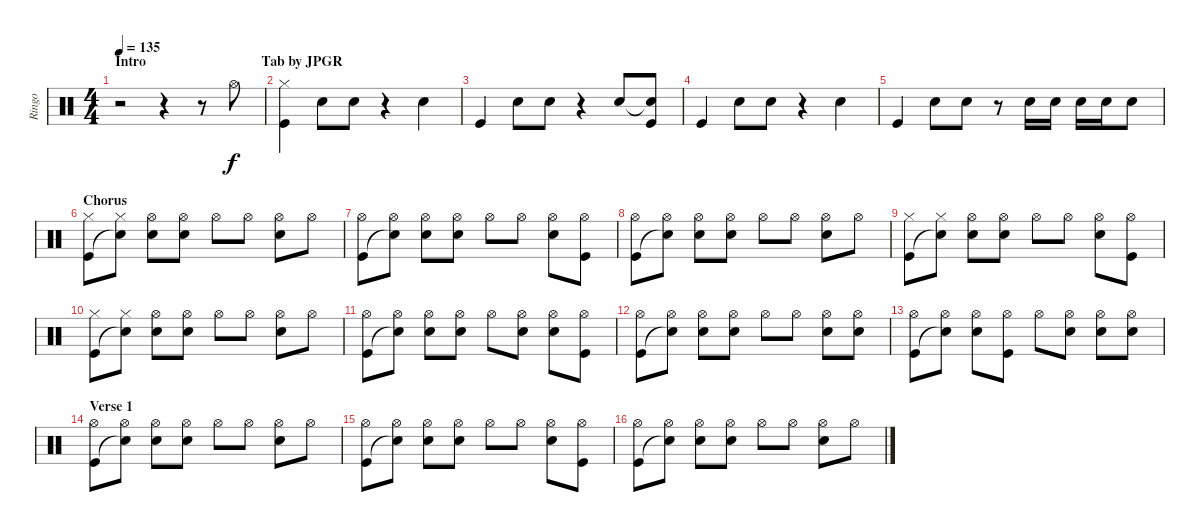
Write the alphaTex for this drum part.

\track ("Ringo" "Ringo") {instrument percussion}
\staff {score}
\articulation defaults
\ts (4 4)
\section ("" "Intro                                 Tab by JPGR")
\tempo 135
\clef neutral
\ks c
r.2{dy f} r.4 r.8 "Hi-Hat (open)".8 |
("Hi-Hat (closed)" "Kick (hit)").4 "Snare (hit) 2".8 "Snare (hit) 2".8 r.4 "Snare (hit) 2".4 |
"Kick (hit)".4 "Snare (hit) 2".8 "Snare (hit) 2".8 r.4 "Snare (hit) 2".8 ("Snare (hit)"{t} "Kick (hit)").8 |
"Kick (hit)".4 "Snare (hit) 2".8 "Snare (hit) 2".8 r.4 "Snare (hit) 2".4 |
"Kick (hit)".4 "Snare (hit) 2".8 "Snare (hit) 2".8 r.8 "Snare (hit) 2".16 "Snare (hit) 2".16 "Snare (hit) 2".16 "Snare (hit) 2".16 "Snare (hit) 2".8 |
\section ("" "Chorus")
("Hi-Hat (closed)" "Kick (hit)").8 ("Hi-Hat (closed)" "Snare (hit)"{t}).8 ("Hi-Hat (open)" "Snare (hit) 2").8 ("Hi-Hat (open)" "Snare (hit) 2").8 "Hi-Hat (open)".8 "Hi-Hat (open)".8 ("Hi-Hat (open)" "Snare (hit) 2").8 "Hi-Hat (open)".8 |
("Hi-Hat (open)" "Kick (hit)").8 ("Hi-Hat (open)" "Snare (hit)"{t}).8 ("Hi-Hat (open)" "Snare (hit) 2").8 ("Hi-Hat (open)" "Snare (hit) 2").8 "Hi-Hat (open)".8 "Hi-Hat (open)".8 ("Hi-Hat (open)" "Snare (hit) 2").8 ("Hi-Hat (open)" "Kick (hit)").8 |
("Hi-Hat (open)" "Kick (hit)").8 ("Hi-Hat (open)" "Snare (hit)"{t}).8 ("Hi-Hat (open)" "Snare (hit) 2").8 ("Hi-Hat (open)" "Snare (hit) 2").8 "Hi-Hat (open)".8 "Hi-Hat (open)".8 ("Hi-Hat (open)" "Snare (hit) 2").8 "Hi-Hat (open)".8 |
("Hi-Hat (closed)" "Kick (hit)").8 ("Hi-Hat (closed)" "Snare (hit)"{t}).8 ("Hi-Hat (open)" "Snare (hit) 2").8 ("Hi-Hat (open)" "Snare (hit) 2").8 "Hi-Hat (open)".8 "Hi-Hat (open)".8 ("Hi-Hat (open)" "Snare (hit) 2").8 ("Hi-Hat (open)" "Kick (hit)").8 |
("Hi-Hat (closed)" "Kick (hit)").8 ("Hi-Hat (closed)" "Snare (hit)"{t}).8 ("Hi-Hat (open)" "Snare (hit) 2").8 ("Hi-Hat (open)" "Snare (hit) 2").8 "Hi-Hat (open)".8 "Hi-Hat (open)".8 ("Hi-Hat (open)" "Snare (hit) 2").8 "Hi-Hat (open)".8 |
("Hi-Hat (open)" "Kick (hit)").8 ("Hi-Hat (open)" "Snare (hit)"{t}).8 ("Hi-Hat (open)" "Snare (hit) 2").8 ("Hi-Hat (open)" "Snare (hit) 2").8 "Hi-Hat (open)".8 ("Hi-Hat (open)" "Snare (hit) 2").8 ("Hi-Hat (open)" "Snare (hit) 2").8 ("Hi-Hat (open)" "Kick (hit)").8 |
("Hi-Hat (open)" "Kick (hit)").8 ("Hi-Hat (open)" "Snare (hit)"{t}).8 ("Hi-Hat (open)" "Snare (hit) 2").8 ("Hi-Hat (open)" "Snare (hit) 2").8 "Hi-Hat (open)".8 "Hi-Hat (open)".8 ("Hi-Hat (open)" "Snare (hit) 2").8 ("Hi-Hat (open)" "Snare (hit)").8 |
("Hi-Hat (open)" "Kick (hit)").8 ("Hi-Hat (open)" "Snare (hit)"{t}).8 ("Hi-Hat (open)" "Snare (hit) 2").8 ("Hi-Hat (open)" "Kick (hit)").8 "Hi-Hat (open)".8 ("Hi-Hat (open)" "Snare (hit) 2").8 ("Hi-Hat (open)" "Snare (hit) 2").8 ("Hi-Hat (open)" "Snare (hit) 2").8 |
\section ("" "Verse 1")
("Hi-Hat (open)" "Kick (hit)").8 ("Hi-Hat (open)" "Snare (hit)"{t}).8 ("Hi-Hat (open)" "Snare (hit) 2").8 ("Hi-Hat (open)" "Snare (hit) 2").8 "Hi-Hat (open)".8 "Hi-Hat (open)".8 ("Hi-Hat (open)" "Snare (hit) 2").8 "Hi-Hat (open)".8 |
("Hi-Hat (open)" "Kick (hit)").8 ("Hi-Hat (open)" "Snare (hit)"{t}).8 ("Hi-Hat (open)" "Snare (hit) 2").8 ("Hi-Hat (open)" "Snare (hit) 2").8 "Hi-Hat (open)".8 "Hi-Hat (open)".8 ("Hi-Hat (open)" "Snare (hit) 2").8 ("Hi-Hat (open)" "Kick (hit)").8 |
("Hi-Hat (open)" "Kick (hit)").8 ("Hi-Hat (open)" "Snare (hit)"{t}).8 ("Hi-Hat (open)" "Snare (hit) 2").8 ("Hi-Hat (open)" "Snare (hit) 2").8 "Hi-Hat (open)".8 "Hi-Hat (open)".8 ("Hi-Hat (open)" "Snare (hit) 2").8 "Hi-Hat (open)".8
